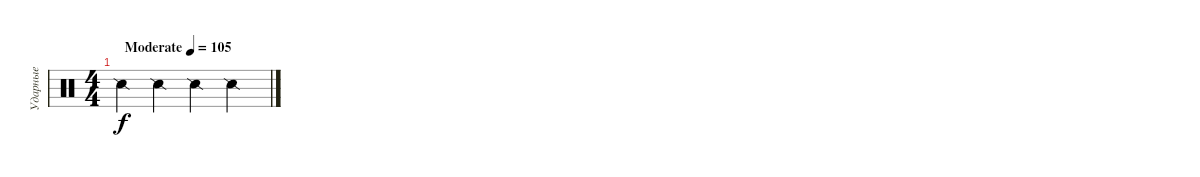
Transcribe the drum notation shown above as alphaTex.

\track ("Ударные" "Ударные") {instrument percussion}
\staff {score}
\articulation defaults
\ts (4 4)
\tempo (105 "Moderate")
\clef neutral
\ks c "Snare (side stick) 2".4{dy f} "Snare (side stick) 2".4 "Snare (side stick) 2".4 "Snare (side stick) 2".4
